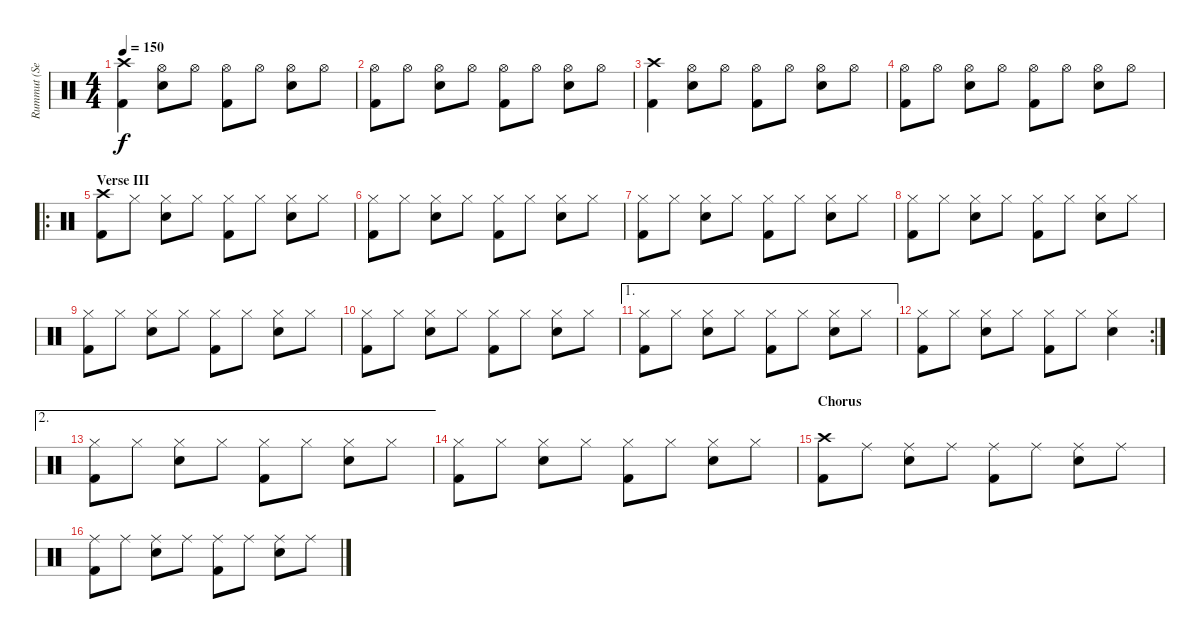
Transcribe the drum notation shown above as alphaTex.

\track ("Rummut (Seppo Pohjolainen)" "Rummut (Se") {instrument percussion}
\staff {score}
\articulation defaults
\ts (4 4)
\tempo 150
\clef neutral
\ks c
("Crash high (hit)" "Kick (hit) 2").4{dy f} ("Hi-Hat (open)" "Snare (hit) 2").8 "Hi-Hat (open)".8 ("Hi-Hat (open)" "Kick (hit) 2").8 "Hi-Hat (open)".8 ("Hi-Hat (open)" "Snare (hit) 2").8 "Hi-Hat (open)".8 |
("Hi-Hat (open)" "Kick (hit) 2").8 "Hi-Hat (open)".8 ("Hi-Hat (open)" "Snare (hit) 2").8 "Hi-Hat (open)".8 ("Hi-Hat (open)" "Kick (hit) 2").8 "Hi-Hat (open)".8 ("Hi-Hat (open)" "Snare (hit) 2").8 "Hi-Hat (open)".8 |
("Crash high (hit)" "Kick (hit) 2").4 ("Hi-Hat (open)" "Snare (hit) 2").8 "Hi-Hat (open)".8 ("Hi-Hat (open)" "Kick (hit) 2").8 "Hi-Hat (open)".8 ("Hi-Hat (open)" "Snare (hit) 2").8 "Hi-Hat (open)".8 |
("Hi-Hat (open)" "Kick (hit) 2").8 "Hi-Hat (open)".8 ("Hi-Hat (open)" "Snare (hit) 2").8 "Hi-Hat (open)".8 ("Hi-Hat (open)" "Kick (hit) 2").8 "Hi-Hat (open)".8 ("Hi-Hat (open)" "Snare (hit) 2").8 "Hi-Hat (open)".8 |
\ro
\section ("" "Verse III")
("Crash high (hit)" "Kick (hit) 2").8 "Hi-Hat (closed)".8 ("Hi-Hat (closed)" "Snare (hit) 2").8 "Hi-Hat (closed)".8 ("Hi-Hat (closed)" "Kick (hit) 2").8 "Hi-Hat (closed)".8 ("Hi-Hat (closed)" "Snare (hit) 2").8 "Hi-Hat (closed)".8 |
("Hi-Hat (closed)" "Kick (hit) 2").8 "Hi-Hat (closed)".8 ("Hi-Hat (closed)" "Snare (hit) 2").8 "Hi-Hat (closed)".8 ("Hi-Hat (closed)" "Kick (hit) 2").8 "Hi-Hat (closed)".8 ("Hi-Hat (closed)" "Snare (hit) 2").8 "Hi-Hat (closed)".8 |
("Hi-Hat (closed)" "Kick (hit) 2").8 "Hi-Hat (closed)".8 ("Hi-Hat (closed)" "Snare (hit) 2").8 "Hi-Hat (closed)".8 ("Hi-Hat (closed)" "Kick (hit) 2").8 "Hi-Hat (closed)".8 ("Hi-Hat (closed)" "Snare (hit) 2").8 "Hi-Hat (closed)".8 |
("Hi-Hat (closed)" "Kick (hit) 2").8 "Hi-Hat (closed)".8 ("Hi-Hat (closed)" "Snare (hit) 2").8 "Hi-Hat (closed)".8 ("Hi-Hat (closed)" "Kick (hit) 2").8 "Hi-Hat (closed)".8 ("Hi-Hat (closed)" "Snare (hit) 2").8 "Hi-Hat (closed)".8 |
("Hi-Hat (closed)" "Kick (hit) 2").8 "Hi-Hat (closed)".8 ("Hi-Hat (closed)" "Snare (hit) 2").8 "Hi-Hat (closed)".8 ("Hi-Hat (closed)" "Kick (hit) 2").8 "Hi-Hat (closed)".8 ("Hi-Hat (closed)" "Snare (hit) 2").8 "Hi-Hat (closed)".8 |
("Hi-Hat (closed)" "Kick (hit) 2").8 "Hi-Hat (closed)".8 ("Hi-Hat (closed)" "Snare (hit) 2").8 "Hi-Hat (closed)".8 ("Hi-Hat (closed)" "Kick (hit) 2").8 "Hi-Hat (closed)".8 ("Hi-Hat (closed)" "Snare (hit) 2").8 "Hi-Hat (closed)".8 |
\ae 1
("Hi-Hat (closed)" "Kick (hit) 2").8 "Hi-Hat (closed)".8 ("Hi-Hat (closed)" "Snare (hit) 2").8 "Hi-Hat (closed)".8 ("Hi-Hat (closed)" "Kick (hit) 2").8 "Hi-Hat (closed)".8 ("Hi-Hat (closed)" "Snare (hit) 2").8 "Hi-Hat (closed)".8 |
\rc 2
("Hi-Hat (closed)" "Kick (hit) 2").8 "Hi-Hat (closed)".8 ("Hi-Hat (closed)" "Snare (hit) 2").8 "Hi-Hat (closed)".8 ("Hi-Hat (closed)" "Kick (hit) 2").8 "Hi-Hat (closed)".8 ("Hi-Hat (closed)" "Snare (hit) 2").4 |
\ae 2
("Hi-Hat (closed)" "Kick (hit) 2").8 "Hi-Hat (closed)".8 ("Hi-Hat (closed)" "Snare (hit) 2").8 "Hi-Hat (closed)".8 ("Hi-Hat (closed)" "Kick (hit) 2").8 "Hi-Hat (closed)".8 ("Hi-Hat (closed)" "Snare (hit) 2").8 "Hi-Hat (closed)".8 |
("Hi-Hat (closed)" "Kick (hit) 2").8 "Hi-Hat (closed)".8 ("Hi-Hat (closed)" "Snare (hit) 2").8 "Hi-Hat (closed)".8 ("Hi-Hat (closed)" "Kick (hit) 2").8 "Hi-Hat (closed)".8 ("Hi-Hat (closed)" "Snare (hit) 2").8 "Hi-Hat (closed)".8 |
\section ("" "Chorus")
("Crash high (hit)" "Kick (hit) 2").8 "Ride (middle)".8 ("Ride (middle)" "Snare (hit) 2").8 "Ride (middle)".8 ("Ride (middle)" "Kick (hit) 2").8 "Ride (middle)".8 ("Ride (middle)" "Snare (hit) 2").8 "Ride (middle)".8 |
("Ride (middle)" "Kick (hit) 2").8 "Ride (middle)".8 ("Ride (middle)" "Snare (hit) 2").8 "Ride (middle)".8 ("Ride (middle)" "Kick (hit) 2").8 "Ride (middle)".8 ("Ride (middle)" "Snare (hit) 2").8 "Ride (middle)".8
